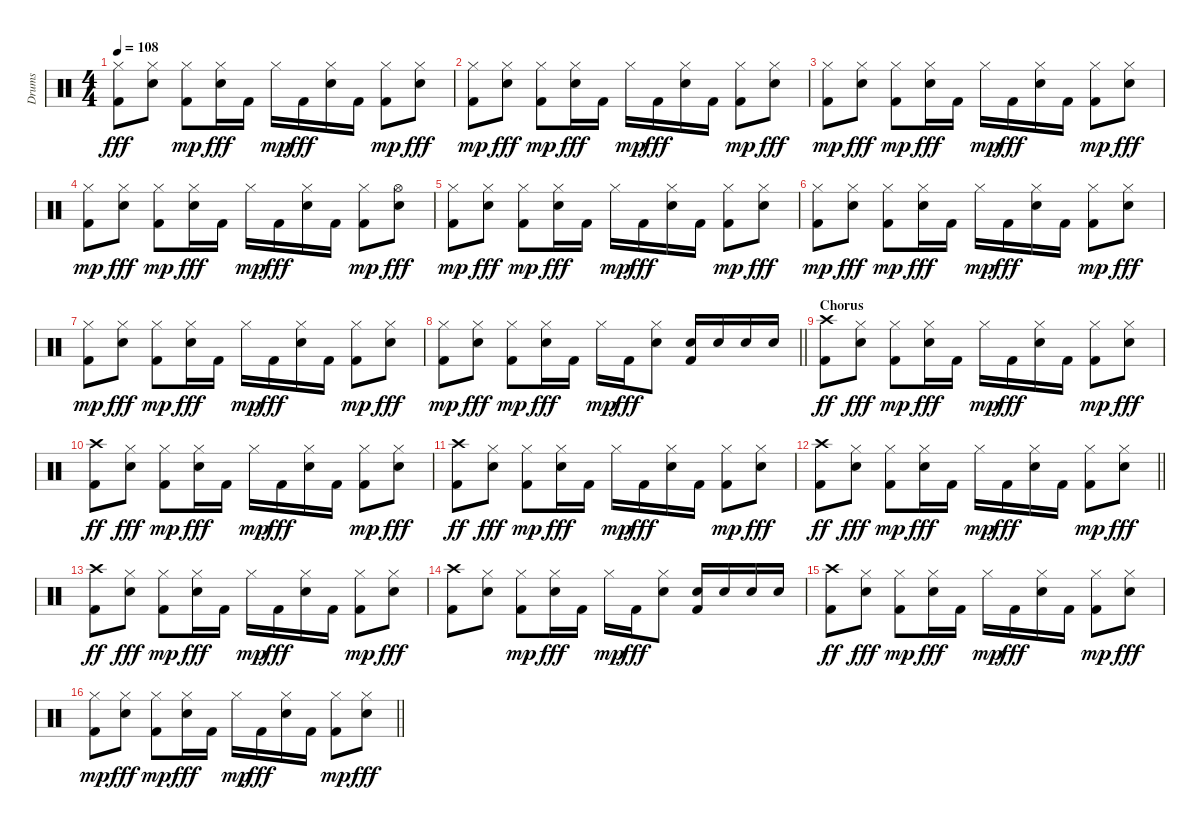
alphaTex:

\track ("Drums" "Drums") {instrument percussion}
\staff {score}
\articulation defaults
\ts (4 4)
\tempo 108
\clef neutral
\ks c
("Kick (hit) 2" "Hi-Hat (closed)").8{dy fff} ("Snare (hit) 2" "Hi-Hat (closed)").8 ("Kick (hit) 2" "Hi-Hat (closed)").8{dy mp} ("Snare (hit) 2" "Hi-Hat (closed)").16{dy fff} "Kick (hit) 2".16 "Hi-Hat (closed)".16{dy mp} "Kick (hit) 2".16{dy fff} ("Snare (hit) 2" "Hi-Hat (closed)").16 "Kick (hit) 2".16 ("Kick (hit) 2" "Hi-Hat (closed)").8{dy mp} ("Snare (hit) 2" "Hi-Hat (closed)").8{dy fff} |
("Kick (hit) 2" "Hi-Hat (closed)").8{dy mp} ("Snare (hit) 2" "Hi-Hat (closed)").8{dy fff} ("Kick (hit) 2" "Hi-Hat (closed)").8{dy mp} ("Snare (hit) 2" "Hi-Hat (closed)").16{dy fff} "Kick (hit) 2".16 "Hi-Hat (closed)".16{dy mp} "Kick (hit) 2".16{dy fff} ("Snare (hit) 2" "Hi-Hat (closed)").16 "Kick (hit) 2".16 ("Kick (hit) 2" "Hi-Hat (closed)").8{dy mp} ("Snare (hit) 2" "Hi-Hat (closed)").8{dy fff} |
("Kick (hit) 2" "Hi-Hat (closed)").8{dy mp} ("Snare (hit) 2" "Hi-Hat (closed)").8{dy fff} ("Kick (hit) 2" "Hi-Hat (closed)").8{dy mp} ("Snare (hit) 2" "Hi-Hat (closed)").16{dy fff} "Kick (hit) 2".16 "Hi-Hat (closed)".16{dy mp} "Kick (hit) 2".16{dy fff} ("Snare (hit) 2" "Hi-Hat (closed)").16 "Kick (hit) 2".16 ("Kick (hit) 2" "Hi-Hat (closed)").8{dy mp} ("Snare (hit) 2" "Hi-Hat (closed)").8{dy fff} |
("Kick (hit) 2" "Hi-Hat (closed)").8{dy mp} ("Snare (hit) 2" "Hi-Hat (closed)").8{dy fff} ("Kick (hit) 2" "Hi-Hat (closed)").8{dy mp} ("Snare (hit) 2" "Hi-Hat (closed)").16{dy fff} "Kick (hit) 2".16 "Hi-Hat (closed)".16{dy mp} "Kick (hit) 2".16{dy fff} ("Snare (hit) 2" "Hi-Hat (closed)").16 "Kick (hit) 2".16 ("Kick (hit) 2" "Hi-Hat (closed)").8{dy mp} ("Snare (hit) 2" "Hi-Hat (open)").8{dy fff} |
("Kick (hit) 2" "Hi-Hat (closed)").8{dy mp} ("Snare (hit) 2" "Hi-Hat (closed)").8{dy fff} ("Kick (hit) 2" "Hi-Hat (closed)").8{dy mp} ("Snare (hit) 2" "Hi-Hat (closed)").16{dy fff} "Kick (hit) 2".16 "Hi-Hat (closed)".16{dy mp} "Kick (hit) 2".16{dy fff} ("Snare (hit) 2" "Hi-Hat (closed)").16 "Kick (hit) 2".16 ("Kick (hit) 2" "Hi-Hat (closed)").8{dy mp} ("Snare (hit) 2" "Hi-Hat (closed)").8{dy fff} |
("Kick (hit) 2" "Hi-Hat (closed)").8{dy mp} ("Snare (hit) 2" "Hi-Hat (closed)").8{dy fff} ("Kick (hit) 2" "Hi-Hat (closed)").8{dy mp} ("Snare (hit) 2" "Hi-Hat (closed)").16{dy fff} "Kick (hit) 2".16 "Hi-Hat (closed)".16{dy mp} "Kick (hit) 2".16{dy fff} ("Snare (hit) 2" "Hi-Hat (closed)").16 "Kick (hit) 2".16 ("Kick (hit) 2" "Hi-Hat (closed)").8{dy mp} ("Snare (hit) 2" "Hi-Hat (closed)").8{dy fff} |
("Kick (hit) 2" "Hi-Hat (closed)").8{dy mp} ("Snare (hit) 2" "Hi-Hat (closed)").8{dy fff} ("Kick (hit) 2" "Hi-Hat (closed)").8{dy mp} ("Snare (hit) 2" "Hi-Hat (closed)").16{dy fff} "Kick (hit) 2".16 "Hi-Hat (closed)".16{dy mp} "Kick (hit) 2".16{dy fff} ("Snare (hit) 2" "Hi-Hat (closed)").16 "Kick (hit) 2".16 ("Kick (hit) 2" "Hi-Hat (closed)").8{dy mp} ("Snare (hit) 2" "Hi-Hat (closed)").8{dy fff} |
\barLineRight lightlight
("Kick (hit) 2" "Hi-Hat (closed)").8{dy mp} ("Snare (hit) 2" "Hi-Hat (closed)").8{dy fff} ("Kick (hit) 2" "Hi-Hat (closed)").8{dy mp} ("Snare (hit) 2" "Hi-Hat (closed)").16{dy fff} "Kick (hit) 2".16 "Hi-Hat (closed)".16{dy mp} "Kick (hit) 2".16{dy fff} ("Snare (hit) 2" "Hi-Hat (closed)").8 ("Snare (hit) 2" "Kick (hit) 2").16 "Snare (hit) 2".16 "Snare (hit) 2".16 "Snare (hit) 2".16 |
\section ("" "Chorus")
("Kick (hit) 2" "Crash high (hit)").8{dy ff} ("Snare (hit) 2" "Hi-Hat (closed)").8{dy fff} ("Kick (hit) 2" "Hi-Hat (closed)").8{dy mp} ("Snare (hit) 2" "Hi-Hat (closed)").16{dy fff} "Kick (hit) 2".16 "Hi-Hat (closed)".16{dy mp} "Kick (hit) 2".16{dy fff} ("Snare (hit) 2" "Hi-Hat (closed)").16 "Kick (hit) 2".16 ("Kick (hit) 2" "Hi-Hat (closed)").8{dy mp} ("Snare (hit) 2" "Hi-Hat (closed)").8{dy fff} |
("Kick (hit) 2" "Crash high (hit)").8{dy ff} ("Snare (hit) 2" "Hi-Hat (closed)").8{dy fff} ("Kick (hit) 2" "Hi-Hat (closed)").8{dy mp} ("Snare (hit) 2" "Hi-Hat (closed)").16{dy fff} "Kick (hit) 2".16 "Hi-Hat (closed)".16{dy mp} "Kick (hit) 2".16{dy fff} ("Snare (hit) 2" "Hi-Hat (closed)").16 "Kick (hit) 2".16 ("Kick (hit) 2" "Hi-Hat (closed)").8{dy mp} ("Snare (hit) 2" "Hi-Hat (closed)").8{dy fff} |
("Kick (hit) 2" "Crash high (hit)").8{dy ff} ("Snare (hit) 2" "Hi-Hat (closed)").8{dy fff} ("Kick (hit) 2" "Hi-Hat (closed)").8{dy mp} ("Snare (hit) 2" "Hi-Hat (closed)").16{dy fff} "Kick (hit) 2".16 "Hi-Hat (closed)".16{dy mp} "Kick (hit) 2".16{dy fff} ("Snare (hit) 2" "Hi-Hat (closed)").16 "Kick (hit) 2".16 ("Kick (hit) 2" "Hi-Hat (closed)").8{dy mp} ("Snare (hit) 2" "Hi-Hat (closed)").8{dy fff} |
\barLineRight lightlight
("Kick (hit) 2" "Crash high (hit)").8{dy ff} ("Snare (hit) 2" "Hi-Hat (closed)").8{dy fff} ("Kick (hit) 2" "Hi-Hat (closed)").8{dy mp} ("Snare (hit) 2" "Hi-Hat (closed)").16{dy fff} "Kick (hit) 2".16 "Hi-Hat (closed)".16{dy mp} "Kick (hit) 2".16{dy fff} ("Snare (hit) 2" "Hi-Hat (closed)").16 "Kick (hit) 2".16 ("Kick (hit) 2" "Hi-Hat (closed)").8{dy mp} ("Snare (hit) 2" "Hi-Hat (closed)").8{dy fff} |
("Kick (hit) 2" "Crash high (hit)").8{dy ff} ("Snare (hit) 2" "Hi-Hat (closed)").8{dy fff} ("Kick (hit) 2" "Hi-Hat (closed)").8{dy mp} ("Snare (hit) 2" "Hi-Hat (closed)").16{dy fff} "Kick (hit) 2".16 "Hi-Hat (closed)".16{dy mp} "Kick (hit) 2".16{dy fff} ("Snare (hit) 2" "Hi-Hat (closed)").16 "Kick (hit) 2".16 ("Kick (hit) 2" "Hi-Hat (closed)").8{dy mp} ("Snare (hit) 2" "Hi-Hat (closed)").8{dy fff} |
("Kick (hit) 2" "Crash high (hit)").8 ("Snare (hit) 2" "Hi-Hat (closed)").8 ("Kick (hit) 2" "Hi-Hat (closed)").8{dy mp} ("Snare (hit) 2" "Hi-Hat (closed)").16{dy fff} "Kick (hit) 2".16 "Hi-Hat (closed)".16{dy mp} "Kick (hit) 2".16{dy fff} ("Snare (hit) 2" "Hi-Hat (closed)").8 ("Snare (hit) 2" "Kick (hit) 2").16 "Snare (hit) 2".16 "Snare (hit) 2".16 "Snare (hit) 2".16 |
("Kick (hit) 2" "Crash high (hit)").8{dy ff} ("Snare (hit) 2" "Hi-Hat (closed)").8{dy fff} ("Kick (hit) 2" "Hi-Hat (closed)").8{dy mp} ("Snare (hit) 2" "Hi-Hat (closed)").16{dy fff} "Kick (hit) 2".16 "Hi-Hat (closed)".16{dy mp} "Kick (hit) 2".16{dy fff} ("Snare (hit) 2" "Hi-Hat (closed)").16 "Kick (hit) 2".16 ("Kick (hit) 2" "Hi-Hat (closed)").8{dy mp} ("Snare (hit) 2" "Hi-Hat (closed)").8{dy fff} |
\barLineRight lightlight
("Kick (hit) 2" "Hi-Hat (closed)").8{dy mp} ("Snare (hit) 2" "Hi-Hat (closed)").8{dy fff} ("Kick (hit) 2" "Hi-Hat (closed)").8{dy mp} ("Snare (hit) 2" "Hi-Hat (closed)").16{dy fff} "Kick (hit) 2".16 "Hi-Hat (closed)".16{dy mp} "Kick (hit) 2".16{dy fff} ("Snare (hit) 2" "Hi-Hat (closed)").16 "Kick (hit) 2".16 ("Kick (hit) 2" "Hi-Hat (closed)").8{dy mp} ("Snare (hit) 2" "Hi-Hat (closed)").8{dy fff}
